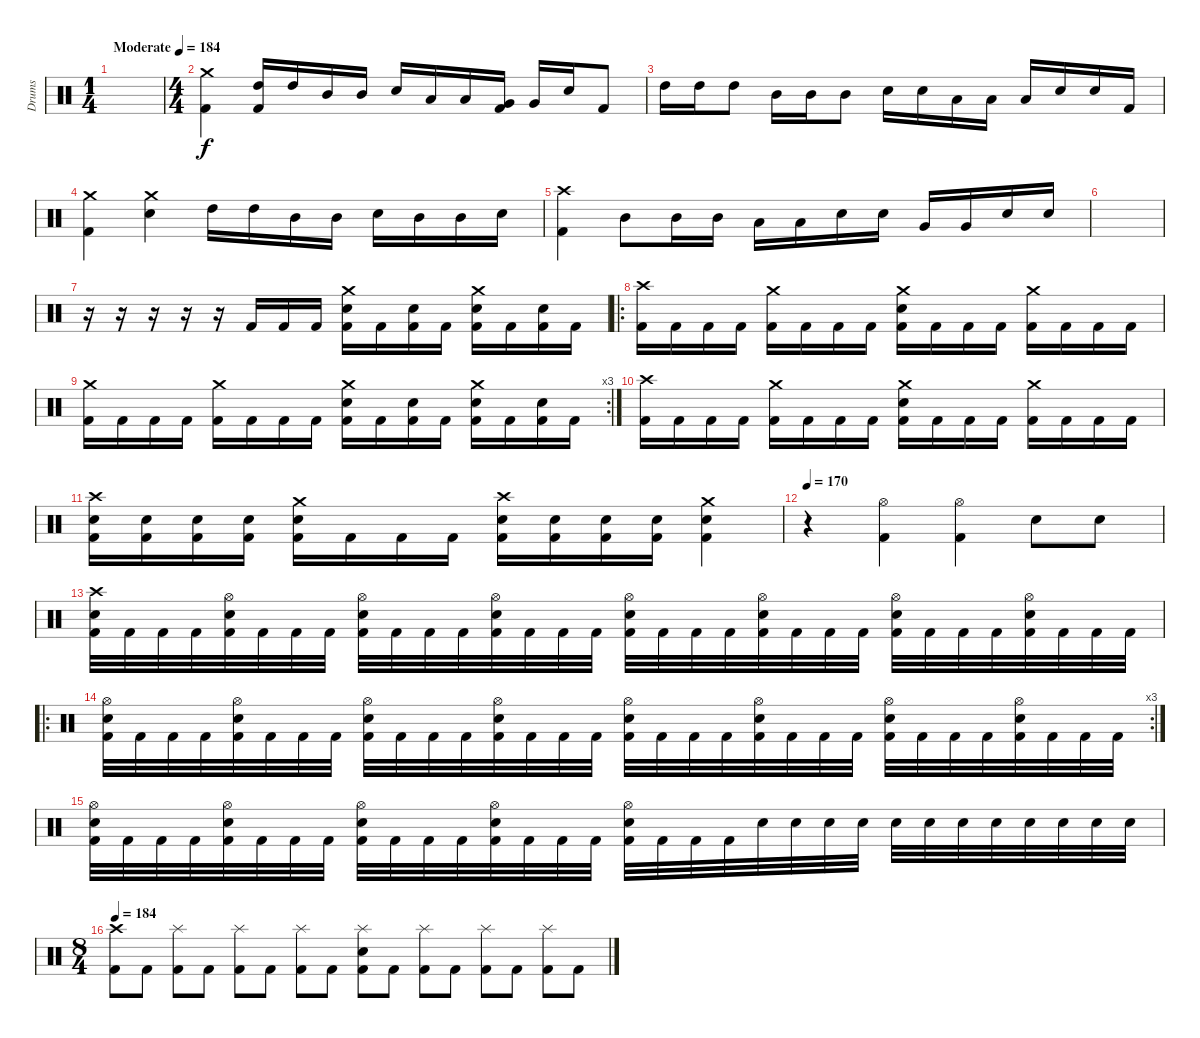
\track ("Drums" "Drums") {instrument percussion}
\staff {score}
\articulation defaults
\ts (1 4)
\tempo (184 "Moderate")
\clef neutral
\ks c
|
\ts (4 4)
("Crash medium (hit)" "Kick (hit) 2").4 ("High Tom (hit)" "Kick (hit) 2").16 "High Tom (hit)".16 "Mid Tom (hit)".16 "Mid Tom (hit)".16 "Electric Snare (hit)".16 "Low Tom (hit)".16 "Low Tom (hit)".16 ("Very Low Tom (hit)" "Kick (hit) 2").16 "Very Low Tom (hit)".16 "Electric Snare (hit)".16 "Kick (hit) 2".8 |
"High Tom (hit)".16 "High Tom (hit)".16 "High Tom (hit)".8 "Mid Tom (hit)".16 "Mid Tom (hit)".16 "Mid Tom (hit)".8 "Electric Snare (hit)".16 "Electric Snare (hit)".16 "Low Tom (hit)".16 "Low Tom (hit)".16 "Low Tom (hit)".16 "Electric Snare (hit)".16 "Electric Snare (hit)".16 "Kick (hit) 2".16 |
("Crash medium (hit)" "Kick (hit) 2").4 ("Crash medium (hit)" "Electric Snare (hit)").4 "High Tom (hit)".16 "High Tom (hit)".16 "Mid Tom (hit)".16 "Mid Tom (hit)".16 "Electric Snare (hit)".16 "Mid Tom (hit)".16 "Mid Tom (hit)".16 "Electric Snare (hit)".16 |
("Crash high (hit)" "Kick (hit) 2").4 "Mid Tom (hit)".8 "Mid Tom (hit)".16 "Mid Tom (hit)".16 "Low Tom (hit)".16 "Low Tom (hit)".16 "Electric Snare (hit)".16 "Electric Snare (hit)".16 "Very Low Tom (hit)".16 "Very Low Tom (hit)".16 "Electric Snare (hit)".16 "Electric Snare (hit)".16 |
|
r.16 r.16 r.16 r.16 r.16 "Kick (hit) 2".16 "Kick (hit) 2".16 "Kick (hit) 2".16 ("Crash medium (hit)" "Electric Snare (hit)" "Kick (hit) 2").16 "Kick (hit) 2".16 ("Electric Snare (hit)" "Kick (hit) 2").16 "Kick (hit) 2".16 ("Crash medium (hit)" "Electric Snare (hit)" "Kick (hit) 2").16 "Kick (hit) 2".16 ("Electric Snare (hit)" "Kick (hit) 2").16 "Kick (hit) 2".16 |
\ro
("Crash high (hit)" "Kick (hit) 2").16 "Kick (hit) 2".16 "Kick (hit) 2".16 "Kick (hit) 2".16 ("Crash medium (hit)" "Kick (hit) 2").16 "Kick (hit) 2".16 "Kick (hit) 2".16 "Kick (hit) 2".16 ("Crash medium (hit)" "Electric Snare (hit)" "Kick (hit) 2").16 "Kick (hit) 2".16 "Kick (hit) 2".16 "Kick (hit) 2".16 ("Crash medium (hit)" "Kick (hit) 2").16 "Kick (hit) 2".16 "Kick (hit) 2".16 "Kick (hit) 2".16 |
\rc 3
("Crash medium (hit)" "Kick (hit) 2").16 "Kick (hit) 2".16 "Kick (hit) 2".16 "Kick (hit) 2".16 ("Crash medium (hit)" "Kick (hit) 2").16 "Kick (hit) 2".16 "Kick (hit) 2".16 "Kick (hit) 2".16 ("Crash medium (hit)" "Electric Snare (hit)" "Kick (hit) 2").16 "Kick (hit) 2".16 ("Electric Snare (hit)" "Kick (hit) 2").16 "Kick (hit) 2".16 ("Crash medium (hit)" "Electric Snare (hit)" "Kick (hit) 2").16 "Kick (hit) 2".16 ("Electric Snare (hit)" "Kick (hit) 2").16 "Kick (hit) 2".16 |
("Crash high (hit)" "Kick (hit) 2").16 "Kick (hit) 2".16 "Kick (hit) 2".16 "Kick (hit) 2".16 ("Crash medium (hit)" "Kick (hit) 2").16 "Kick (hit) 2".16 "Kick (hit) 2".16 "Kick (hit) 2".16 ("Crash medium (hit)" "Electric Snare (hit)" "Kick (hit) 2").16 "Kick (hit) 2".16 "Kick (hit) 2".16 "Kick (hit) 2".16 ("Crash medium (hit)" "Kick (hit) 2").16 "Kick (hit) 2".16 "Kick (hit) 2".16 "Kick (hit) 2".16 |
("Crash high (hit)" "Electric Snare (hit)" "Kick (hit) 2").16 ("Electric Snare (hit)" "Kick (hit) 2").16 ("Electric Snare (hit)" "Kick (hit) 2").16 ("Electric Snare (hit)" "Kick (hit) 2").16 ("Crash medium (hit)" "Electric Snare (hit)" "Kick (hit) 2").16 "Kick (hit) 2".16 "Kick (hit) 2".16 "Kick (hit) 2".16 ("Crash high (hit)" "Electric Snare (hit)" "Kick (hit) 2").16 ("Electric Snare (hit)" "Kick (hit) 2").16 ("Electric Snare (hit)" "Kick (hit) 2").16 ("Electric Snare (hit)" "Kick (hit) 2").16 ("Crash medium (hit)" "Electric Snare (hit)" "Kick (hit) 2").4 |
\tempo 170
r.4 ("Hi-Hat (open)" "Kick (hit) 2").4 ("Hi-Hat (open)" "Kick (hit) 2").4 "Electric Snare (hit)".8 "Electric Snare (hit)".8 |
("Crash high (hit)" "Electric Snare (hit)" "Kick (hit) 2").32 "Kick (hit) 2".32 "Kick (hit) 2".32 "Kick (hit) 2".32 ("Hi-Hat (open)" "Electric Snare (hit)" "Kick (hit) 2").32 "Kick (hit) 2".32 "Kick (hit) 2".32 "Kick (hit) 2".32 ("Hi-Hat (open)" "Electric Snare (hit)" "Kick (hit) 2").32 "Kick (hit) 2".32 "Kick (hit) 2".32 "Kick (hit) 2".32 ("Hi-Hat (open)" "Electric Snare (hit)" "Kick (hit) 2").32 "Kick (hit) 2".32 "Kick (hit) 2".32 "Kick (hit) 2".32 ("Hi-Hat (open)" "Electric Snare (hit)" "Kick (hit) 2").32 "Kick (hit) 2".32 "Kick (hit) 2".32 "Kick (hit) 2".32 ("Hi-Hat (open)" "Electric Snare (hit)" "Kick (hit) 2").32 "Kick (hit) 2".32 "Kick (hit) 2".32 "Kick (hit) 2".32 ("Hi-Hat (open)" "Electric Snare (hit)" "Kick (hit) 2").32 "Kick (hit) 2".32 "Kick (hit) 2".32 "Kick (hit) 2".32 ("Hi-Hat (open)" "Electric Snare (hit)" "Kick (hit) 2").32 "Kick (hit) 2".32 "Kick (hit) 2".32 "Kick (hit) 2".32 |
\ro
\rc 3
("Hi-Hat (open)" "Electric Snare (hit)" "Kick (hit) 2").32 "Kick (hit) 2".32 "Kick (hit) 2".32 "Kick (hit) 2".32 ("Hi-Hat (open)" "Electric Snare (hit)" "Kick (hit) 2").32 "Kick (hit) 2".32 "Kick (hit) 2".32 "Kick (hit) 2".32 ("Hi-Hat (open)" "Electric Snare (hit)" "Kick (hit) 2").32 "Kick (hit) 2".32 "Kick (hit) 2".32 "Kick (hit) 2".32 ("Hi-Hat (open)" "Electric Snare (hit)" "Kick (hit) 2").32 "Kick (hit) 2".32 "Kick (hit) 2".32 "Kick (hit) 2".32 ("Hi-Hat (open)" "Electric Snare (hit)" "Kick (hit) 2").32 "Kick (hit) 2".32 "Kick (hit) 2".32 "Kick (hit) 2".32 ("Hi-Hat (open)" "Electric Snare (hit)" "Kick (hit) 2").32 "Kick (hit) 2".32 "Kick (hit) 2".32 "Kick (hit) 2".32 ("Hi-Hat (open)" "Electric Snare (hit)" "Kick (hit) 2").32 "Kick (hit) 2".32 "Kick (hit) 2".32 "Kick (hit) 2".32 ("Hi-Hat (open)" "Electric Snare (hit)" "Kick (hit) 2").32 "Kick (hit) 2".32 "Kick (hit) 2".32 "Kick (hit) 2".32 |
("Hi-Hat (open)" "Electric Snare (hit)" "Kick (hit) 2").32 "Kick (hit) 2".32 "Kick (hit) 2".32 "Kick (hit) 2".32 ("Hi-Hat (open)" "Electric Snare (hit)" "Kick (hit) 2").32 "Kick (hit) 2".32 "Kick (hit) 2".32 "Kick (hit) 2".32 ("Hi-Hat (open)" "Electric Snare (hit)" "Kick (hit) 2").32 "Kick (hit) 2".32 "Kick (hit) 2".32 "Kick (hit) 2".32 ("Hi-Hat (open)" "Electric Snare (hit)" "Kick (hit) 2").32 "Kick (hit) 2".32 "Kick (hit) 2".32 "Kick (hit) 2".32 ("Hi-Hat (open)" "Electric Snare (hit)" "Kick (hit) 2").32 "Kick (hit) 2".32 "Kick (hit) 2".32 "Kick (hit) 2".32 "Electric Snare (hit)".32 "Electric Snare (hit)".32 "Electric Snare (hit)".32 "Electric Snare (hit)".32 "Electric Snare (hit)".32 "Electric Snare (hit)".32 "Electric Snare (hit)".32 "Electric Snare (hit)".32 "Electric Snare (hit)".32 "Electric Snare (hit)".32 "Electric Snare (hit)".32 "Electric Snare (hit)".32 |
\ts (8 4)
\tempo 184
("Crash high (hit)" "Kick (hit) 2").8 "Kick (hit) 2".8 ("Splash (hit)" "Kick (hit) 2").8 "Kick (hit) 2".8 ("Splash (hit)" "Kick (hit) 2").8 "Kick (hit) 2".8 ("Splash (hit)" "Kick (hit) 2").8 "Kick (hit) 2".8 ("Splash (hit)" "Electric Snare (hit)" "Kick (hit) 2").8 "Kick (hit) 2".8 ("Splash (hit)" "Kick (hit) 2").8 "Kick (hit) 2".8 ("Splash (hit)" "Kick (hit) 2").8 "Kick (hit) 2".8 ("Splash (hit)" "Kick (hit) 2").8 "Kick (hit) 2".8
